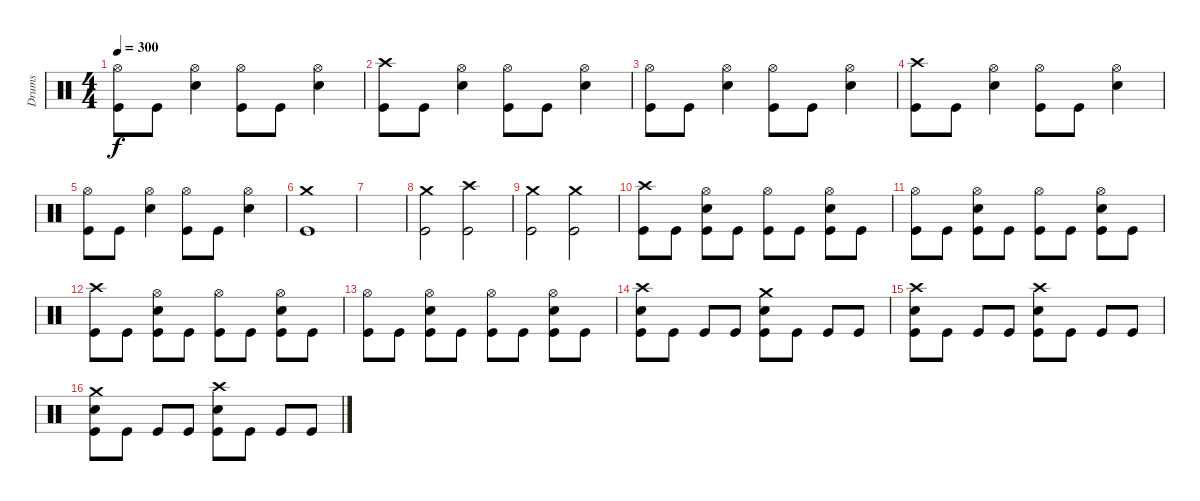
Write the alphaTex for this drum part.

\track ("Drums" "Drums") {instrument percussion}
\staff {score}
\articulation defaults
\ts (4 4)
\tempo 300
\clef neutral
\ks c
("Hi-Hat (open)" "Kick (hit)").8{dy f} "Kick (hit)".8 ("Hi-Hat (open)" "Electric Snare (hit)").4 ("Hi-Hat (open)" "Kick (hit)").8 "Kick (hit)".8 ("Hi-Hat (open)" "Electric Snare (hit)").4 |
("Crash high (hit)" "Kick (hit)").8 "Kick (hit)".8 ("Hi-Hat (open)" "Electric Snare (hit)").4 ("Hi-Hat (open)" "Kick (hit)").8 "Kick (hit)".8 ("Hi-Hat (open)" "Electric Snare (hit)").4 |
("Hi-Hat (open)" "Kick (hit)").8 "Kick (hit)".8 ("Hi-Hat (open)" "Electric Snare (hit)").4 ("Hi-Hat (open)" "Kick (hit)").8 "Kick (hit)".8 ("Hi-Hat (open)" "Electric Snare (hit)").4 |
("Crash high (hit)" "Kick (hit)").8 "Kick (hit)".8 ("Hi-Hat (open)" "Electric Snare (hit)").4 ("Hi-Hat (open)" "Kick (hit)").8 "Kick (hit)".8 ("Hi-Hat (open)" "Electric Snare (hit)").4 |
("Hi-Hat (open)" "Kick (hit)").8 "Kick (hit)".8 ("Hi-Hat (open)" "Electric Snare (hit)").4 ("Hi-Hat (open)" "Kick (hit)").8 "Kick (hit)".8 ("Hi-Hat (open)" "Electric Snare (hit)").4 |
("Crash medium (hit)" "Kick (hit)").1 |
|
("Crash medium (hit)" "Kick (hit)").2 ("Crash high (hit)" "Kick (hit)").2 |
("Crash medium (hit)" "Kick (hit)").2 ("Crash medium (hit)" "Kick (hit)").2 |
("Crash high (hit)" "Kick (hit)").8 "Kick (hit)".8 ("Hi-Hat (open)" "Electric Snare (hit)" "Kick (hit)").8 "Kick (hit)".8 ("Hi-Hat (open)" "Kick (hit)").8 "Kick (hit)".8 ("Hi-Hat (open)" "Electric Snare (hit)" "Kick (hit)").8 "Kick (hit)".8 |
("Hi-Hat (open)" "Kick (hit)").8 "Kick (hit)".8 ("Hi-Hat (open)" "Electric Snare (hit)" "Kick (hit)").8 "Kick (hit)".8 ("Hi-Hat (open)" "Kick (hit)").8 "Kick (hit)".8 ("Hi-Hat (open)" "Electric Snare (hit)" "Kick (hit)").8 "Kick (hit)".8 |
("Crash high (hit)" "Kick (hit)").8 "Kick (hit)".8 ("Hi-Hat (open)" "Electric Snare (hit)" "Kick (hit)").8 "Kick (hit)".8 ("Hi-Hat (open)" "Kick (hit)").8 "Kick (hit)".8 ("Hi-Hat (open)" "Electric Snare (hit)" "Kick (hit)").8 "Kick (hit)".8 |
("Hi-Hat (open)" "Kick (hit)").8 "Kick (hit)".8 ("Hi-Hat (open)" "Electric Snare (hit)" "Kick (hit)").8 "Kick (hit)".8 ("Hi-Hat (open)" "Kick (hit)").8 "Kick (hit)".8 ("Hi-Hat (open)" "Electric Snare (hit)" "Kick (hit)").8 "Kick (hit)".8 |
("Crash high (hit)" "Electric Snare (hit)" "Kick (hit)").8 "Kick (hit)".8 "Kick (hit)".8 "Kick (hit)".8 ("Crash medium (hit)" "Electric Snare (hit)" "Kick (hit)").8 "Kick (hit)".8 "Kick (hit)".8 "Kick (hit)".8 |
("Crash high (hit)" "Electric Snare (hit)" "Kick (hit)").8 "Kick (hit)".8 "Kick (hit)".8 "Kick (hit)".8 ("Crash high (hit)" "Electric Snare (hit)" "Kick (hit)").8 "Kick (hit)".8 "Kick (hit)".8 "Kick (hit)".8 |
("Crash medium (hit)" "Electric Snare (hit)" "Kick (hit)").8 "Kick (hit)".8 "Kick (hit)".8 "Kick (hit)".8 ("Crash high (hit)" "Electric Snare (hit)" "Kick (hit)").8 "Kick (hit)".8 "Kick (hit)".8 "Kick (hit)".8
